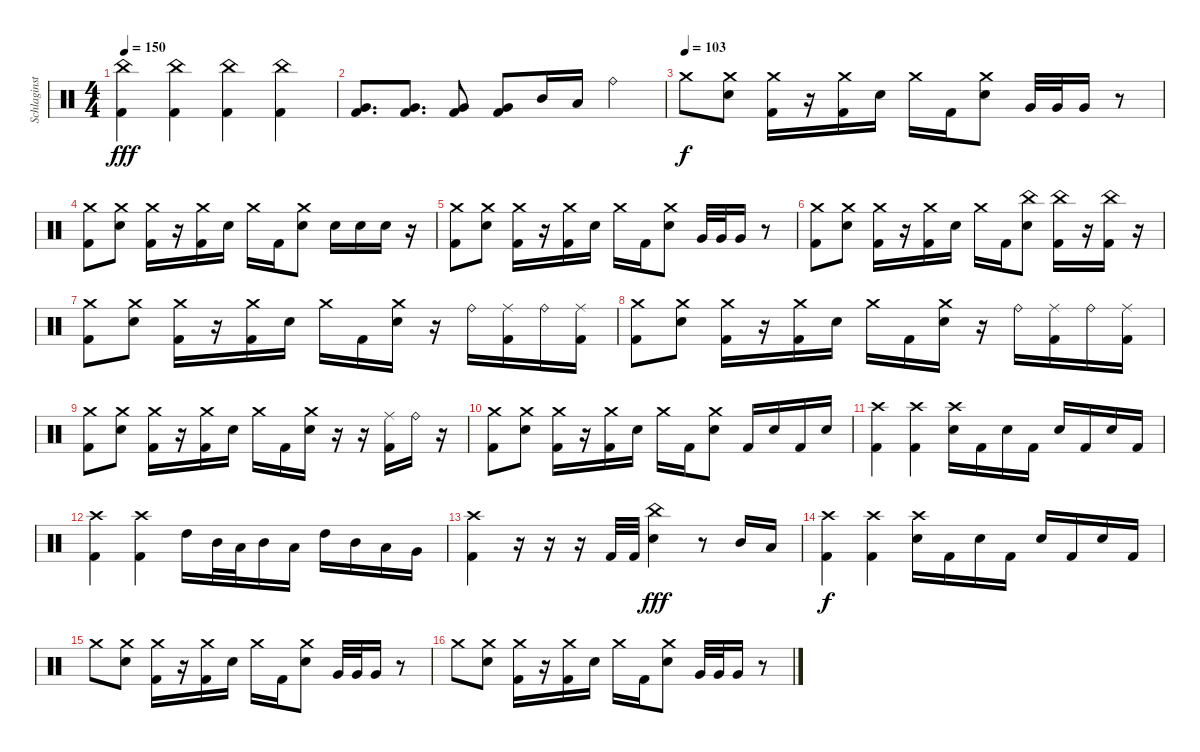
\track ("Schlaginstrumente - Auswahl" "Schlaginst") {instrument percussion}
\staff {score}
\articulation defaults
\ts (4 4)
\tempo 150
\clef neutral
\ks c
("China (hit)" "Kick (hit) 2").4{dy fff} ("China (hit)" "Kick (hit) 2").4 ("China (hit)" "Kick (hit) 2").4 ("China (hit)" "Kick (hit) 2").4 |
("Very Low Tom (hit)" "Kick (hit) 2").8{d} ("Very Low Tom (hit)" "Kick (hit) 2").8{d} ("Very Low Tom (hit)" "Kick (hit) 2").8 ("Very Low Tom (hit)" "Kick (hit) 2").8 "Mid Tom (hit)".16 "Low Tom (hit)".16 "Ride (bell)".4 |
\tempo (103)
"Crash medium (hit)".8{dy f} ("Crash medium (hit)" "Electric Snare (hit)").8 ("Crash medium (hit)" "Kick (hit) 2").16 r.16 ("Crash medium (hit)" "Kick (hit) 2").16 "Electric Snare (hit)".16 "Crash medium (hit)".16 "Kick (hit) 2".16 ("Crash medium (hit)" "Electric Snare (hit)").8 "Very Low Tom (hit)".32 "Very Low Tom (hit)".32 "Very Low Tom (hit)".16 r.8 |
("Crash medium (hit)" "Kick (hit) 2").8 ("Crash medium (hit)" "Electric Snare (hit)").8 ("Crash medium (hit)" "Kick (hit) 2").16 r.16 ("Crash medium (hit)" "Kick (hit) 2").16 "Electric Snare (hit)".16 "Crash medium (hit)".16 "Kick (hit) 2".16 ("Crash medium (hit)" "Electric Snare (hit)").8 "Electric Snare (hit)".16 "Electric Snare (hit)".16 "Electric Snare (hit)".16 r.16 |
("Crash medium (hit)" "Kick (hit) 2").8 ("Crash medium (hit)" "Electric Snare (hit)").8 ("Crash medium (hit)" "Kick (hit) 2").16 r.16 ("Crash medium (hit)" "Kick (hit) 2").16 "Electric Snare (hit)".16 "Crash medium (hit)".16 "Kick (hit) 2".16 ("Crash medium (hit)" "Electric Snare (hit)").8 "Very Low Tom (hit)".32 "Very Low Tom (hit)".32 "Very Low Tom (hit)".16 r.8 |
("Crash medium (hit)" "Kick (hit) 2").8 ("Crash medium (hit)" "Electric Snare (hit)").8 ("Crash medium (hit)" "Kick (hit) 2").16 r.16 ("Crash medium (hit)" "Kick (hit) 2").16 "Electric Snare (hit)".16 "Crash medium (hit)".16 "Kick (hit) 2".16 ("China (hit)" "Electric Snare (hit)").8 ("China (hit)" "Kick (hit) 2").16 r.16 ("China (hit)" "Kick (hit) 2").16 r.16 |
("Crash medium (hit)" "Kick (hit) 2").8 ("Crash medium (hit)" "Electric Snare (hit)").8 ("Crash medium (hit)" "Kick (hit) 2").16 r.16 ("Crash medium (hit)" "Kick (hit) 2").16 "Electric Snare (hit)".16 "Crash medium (hit)".16 "Kick (hit) 2".16 ("Crash medium (hit)" "Electric Snare (hit)").16 r.16 "Ride (bell)".16 ("Ride (middle)" "Kick (hit) 2").16 "Ride (bell)".16 ("Ride (middle)" "Kick (hit) 2").16 |
("Crash medium (hit)" "Kick (hit) 2").8 ("Crash medium (hit)" "Electric Snare (hit)").8 ("Crash medium (hit)" "Kick (hit) 2").16 r.16 ("Crash medium (hit)" "Kick (hit) 2").16 "Electric Snare (hit)".16 "Crash medium (hit)".16 "Kick (hit) 2".16 ("Crash medium (hit)" "Electric Snare (hit)").16 r.16 "Ride (bell)".16 ("Ride (middle)" "Kick (hit) 2").16 "Ride (bell)".16 ("Ride (middle)" "Kick (hit) 2").16 |
("Crash medium (hit)" "Kick (hit) 2").8 ("Crash medium (hit)" "Electric Snare (hit)").8 ("Crash medium (hit)" "Kick (hit) 2").16 r.16 ("Crash medium (hit)" "Kick (hit) 2").16 "Electric Snare (hit)".16 "Crash medium (hit)".16 "Kick (hit) 2".16 ("Crash medium (hit)" "Electric Snare (hit)").16 r.16 r.16 ("Ride (middle)" "Kick (hit) 2").16 "Ride (bell)".16 r.16 |
("Crash medium (hit)" "Kick (hit) 2").8 ("Crash medium (hit)" "Electric Snare (hit)").8 ("Crash medium (hit)" "Kick (hit) 2").16 r.16 ("Crash medium (hit)" "Kick (hit) 2").16 "Electric Snare (hit)".16 "Crash medium (hit)".16 "Kick (hit) 2".16 ("Crash medium (hit)" "Electric Snare (hit)").8 "Kick (hit) 2".16 "Electric Snare (hit)".16 "Kick (hit) 2".16 "Electric Snare (hit)".16 |
("Crash high (hit)" "Kick (hit) 2").4 ("Crash high (hit)" "Kick (hit) 2").4 ("Crash high (hit)" "Electric Snare (hit)").16 "Kick (hit) 2".16 "Electric Snare (hit)".16 "Kick (hit) 2".16 "Electric Snare (hit)".16 "Kick (hit) 2".16 "Electric Snare (hit)".16 "Kick (hit) 2".16 |
("Crash high (hit)" "Kick (hit) 2").4 ("Crash high (hit)" "Kick (hit) 2").4 "High Tom (hit)".16 "Mid Tom (hit)".32 "Low Tom (hit)".32 "Mid Tom (hit)".16 "Low Tom (hit)".16 "High Tom (hit)".16 "Mid Tom (hit)".16 "Low Tom (hit)".16 "Very Low Tom (hit)".16 |
("Crash high (hit)" "Kick (hit) 2").4 r.16 r.16 r.16 "Kick (hit) 2".32 "Kick (hit) 2".32 ("China (hit)" "Electric Snare (hit)").4{dy fff} r.8 "Mid Tom (hit)".16 "Low Tom (hit)".16 |
("Crash high (hit)" "Kick (hit) 2").4{dy f} ("Crash high (hit)" "Kick (hit) 2").4 ("Crash high (hit)" "Electric Snare (hit)").16 "Kick (hit) 2".16 "Electric Snare (hit)".16 "Kick (hit) 2".16 "Electric Snare (hit)".16 "Kick (hit) 2".16 "Electric Snare (hit)".16 "Kick (hit) 2".16 |
"Crash medium (hit)".8 ("Crash medium (hit)" "Electric Snare (hit)").8 ("Crash medium (hit)" "Kick (hit) 2").16 r.16 ("Crash medium (hit)" "Kick (hit) 2").16 "Electric Snare (hit)".16 "Crash medium (hit)".16 "Kick (hit) 2".16 ("Crash medium (hit)" "Electric Snare (hit)").8 "Very Low Tom (hit)".32 "Very Low Tom (hit)".32 "Very Low Tom (hit)".16 r.8 |
"Crash medium (hit)".8 ("Crash medium (hit)" "Electric Snare (hit)").8 ("Crash medium (hit)" "Kick (hit) 2").16 r.16 ("Crash medium (hit)" "Kick (hit) 2").16 "Electric Snare (hit)".16 "Crash medium (hit)".16 "Kick (hit) 2".16 ("Crash medium (hit)" "Electric Snare (hit)").8 "Very Low Tom (hit)".32 "Very Low Tom (hit)".32 "Very Low Tom (hit)".16 r.8
